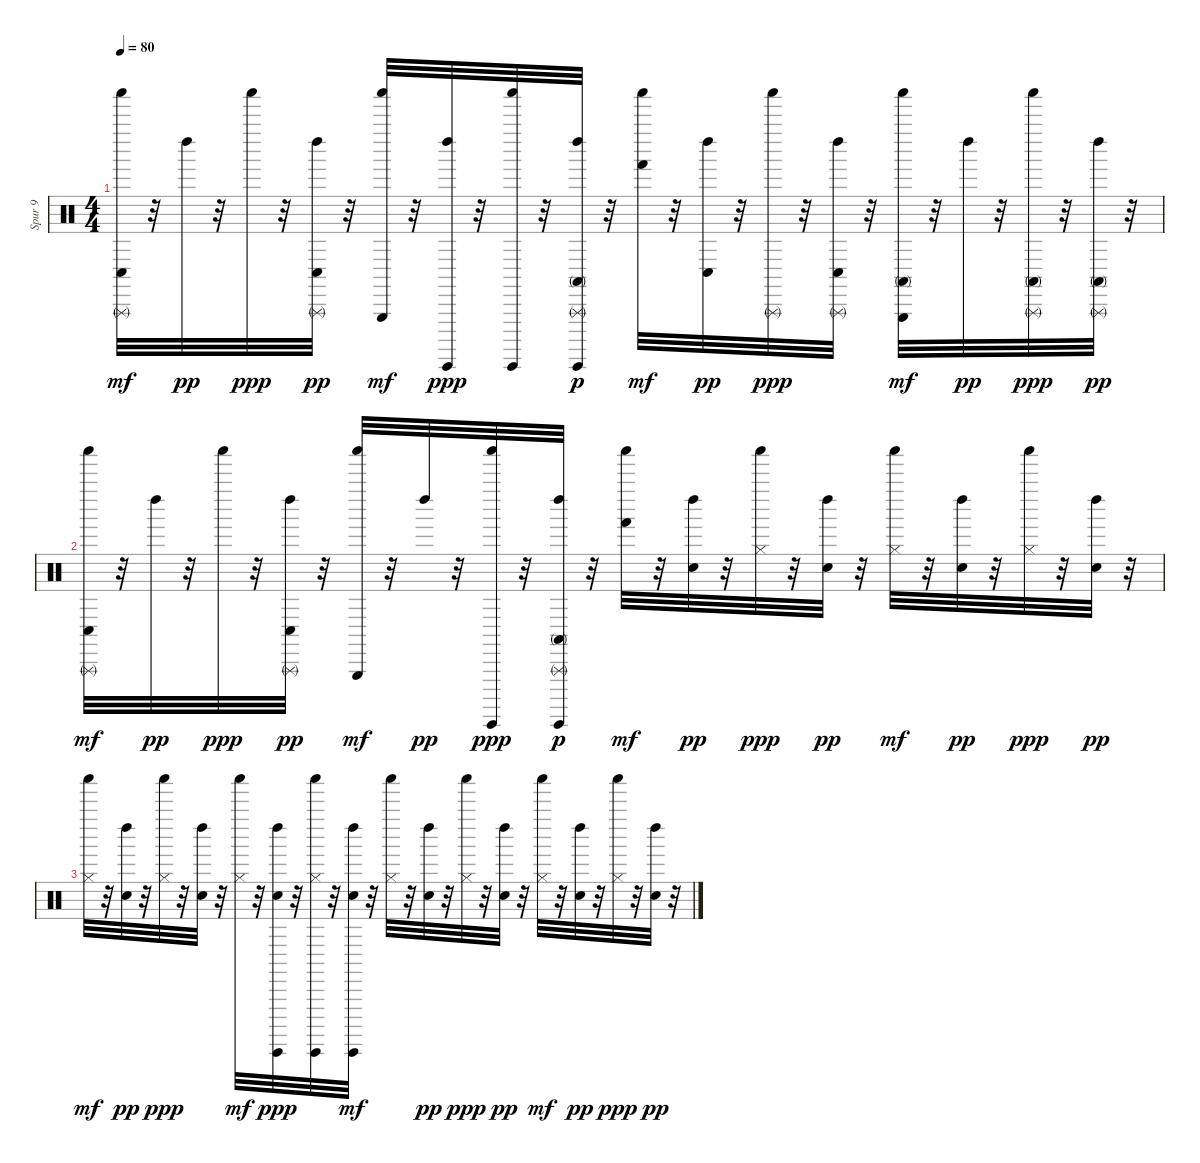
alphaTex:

\track ("Spur 9" "Spur 9") {instrument percussion}
\staff {score}
\articulation defaults
\ts (4 4)
\tempo 80
\clef neutral
\ks c
("Conga low (hit)" "Triangle (rnute)" "Shaker (hit)").32{dy mf} r.32 "Left Maraca (hit)".32{dy pp} r.32 "Shaker (hit)".32{dy ppp} r.32 ("Conga low (hit)" "Left Maraca (hit)" "Triangle (rnute)").32{dy pp} r.32 ("Triangle (hit)" "Shaker (hit)").32{dy mf} r.32 ("Left Maraca (hit)" "Guiro (hit)").32{dy ppp} r.32 ("Guiro (hit)" "Shaker (hit)").32 r.32 ("Conga high (mute)" "Left Maraca (hit)" "Guiro (hit)" "Triangle (rnute)").32{dy p} r.32 ("Hand (hit)" "Shaker (hit)").32{dy mf} r.32 ("Conga low (hit)" "Left Maraca (hit)").32{dy pp} r.32 ("Triangle (rnute)" "Shaker (hit)").32{dy ppp} r.32 ("Conga low (hit)" "Left Maraca (hit)" "Triangle (rnute)").32 r.32 ("Conga high (mute)" "Triangle (hit)" "Shaker (hit)").32{dy mf} r.32 "Left Maraca (hit)".32{dy pp} r.32 ("Conga high (mute)" "Triangle (rnute)" "Shaker (hit)").32{dy ppp} r.32 ("Conga high (mute)" "Left Maraca (hit)" "Triangle (rnute)").32{dy pp} r.32 |
("Conga low (hit)" "Triangle (rnute)" "Shaker (hit)").32{dy mf} r.32 "Left Maraca (hit)".32{dy pp} r.32 "Shaker (hit)".32{dy ppp} r.32 ("Conga low (hit)" "Left Maraca (hit)" "Triangle (rnute)").32{dy pp} r.32 ("Triangle (hit)" "Shaker (hit)").32{dy mf} r.32 "Left Maraca (hit)".32{dy pp} r.32 ("Guiro (hit)" "Shaker (hit)").32{dy ppp} r.32 ("Conga high (mute)" "Left Maraca (hit)" "Guiro (hit)" "Triangle (rnute)").32{dy p} r.32 ("Hand (hit)" "Shaker (hit)").32{dy mf} r.32 ("Snare (hit)" "Left Maraca (hit)").32{dy pp} r.32 ("Hi-Hat (closed)" "Shaker (hit)").32{dy ppp} r.32 ("Snare (hit)" "Left Maraca (hit)").32{dy pp} r.32 ("Hi-Hat (closed)" "Shaker (hit)").32{dy mf} r.32 ("Snare (hit)" "Left Maraca (hit)").32{dy pp} r.32 ("Hi-Hat (closed)" "Shaker (hit)").32{dy ppp} r.32 ("Snare (hit)" "Left Maraca (hit)").32{dy pp} r.32 |
("Hi-Hat (closed)" "Shaker (hit)").32{dy mf} r.32 ("Snare (hit)" "Left Maraca (hit)").32{dy pp} r.32 ("Hi-Hat (closed)" "Shaker (hit)").32{dy ppp} r.32 ("Snare (hit)" "Left Maraca (hit)").32 r.32 ("Hi-Hat (closed)" "Shaker (hit)").32{dy mf} r.32 ("Snare (hit)" "Left Maraca (hit)" "Guiro (hit)").32{dy ppp} r.32 ("Hi-Hat (closed)" "Guiro (hit)" "Shaker (hit)").32 r.32 ("Snare (hit)" "Left Maraca (hit)" "Guiro (hit)").32{dy mf} r.32 ("Hi-Hat (closed)" "Shaker (hit)").32 r.32 ("Snare (hit)" "Left Maraca (hit)").32{dy pp} r.32 ("Hi-Hat (closed)" "Shaker (hit)").32{dy ppp} r.32 ("Snare (hit)" "Left Maraca (hit)").32{dy pp} r.32 ("Hi-Hat (closed)" "Shaker (hit)").32{dy mf} r.32 ("Snare (hit)" "Left Maraca (hit)").32{dy pp} r.32 ("Hi-Hat (closed)" "Shaker (hit)").32{dy ppp} r.32 ("Snare (hit)" "Left Maraca (hit)").32{dy pp} r.32
